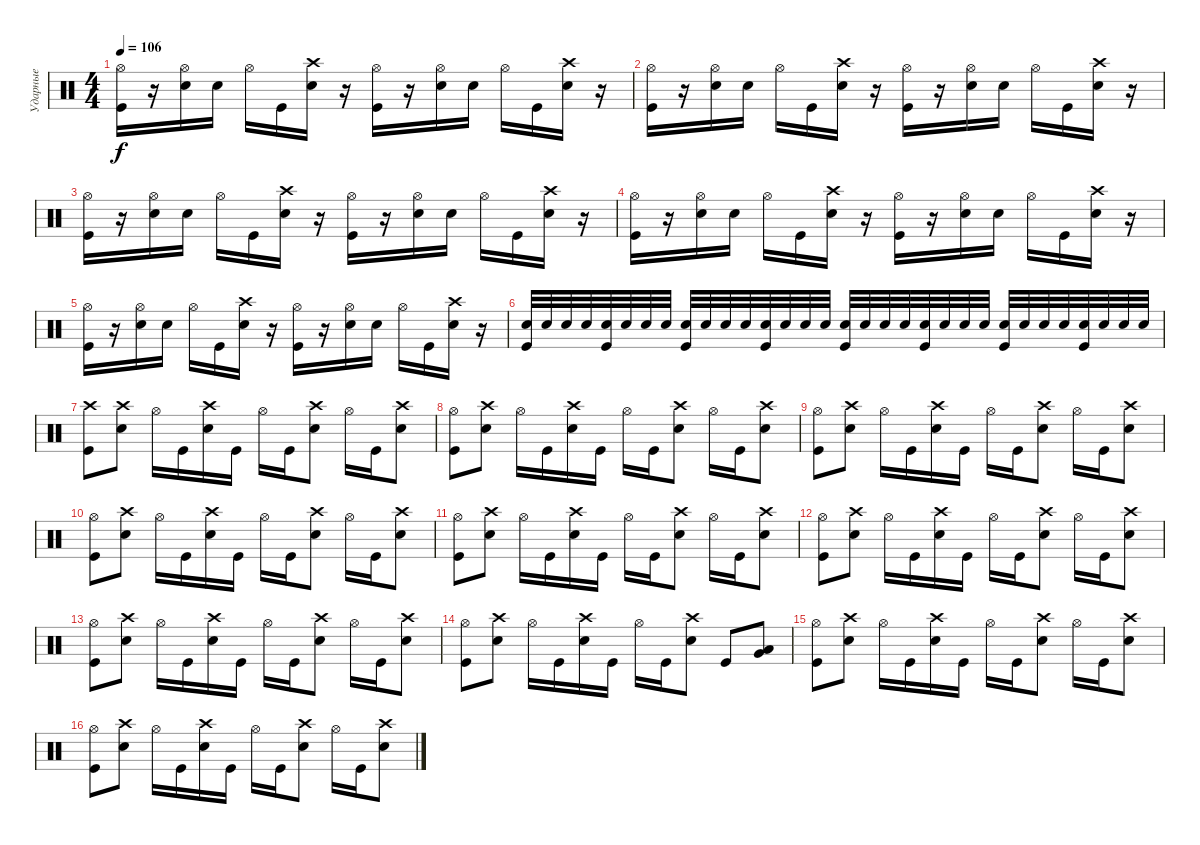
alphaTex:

\track ("Ударные" "Ударные") {instrument percussion}
\staff {score}
\articulation defaults
\ts (4 4)
\tempo 106
\clef neutral
\ks c
("Kick (hit)" "Hi-Hat (open)").16{dy f} r.16 ("Snare (hit) 2" "Hi-Hat (open)").16 "Snare (hit) 2".16 "Hi-Hat (open)".16 "Kick (hit)".16 ("Snare (hit) 2" "Crash high (hit)").16 r.16 ("Kick (hit)" "Hi-Hat (open)").16 r.16 ("Snare (hit) 2" "Hi-Hat (open)").16 "Snare (hit) 2".16 "Hi-Hat (open)".16 "Kick (hit)".16 ("Snare (hit) 2" "Crash high (hit)").16 r.16 |
("Kick (hit)" "Hi-Hat (open)").16 r.16 ("Snare (hit) 2" "Hi-Hat (open)").16 "Snare (hit) 2".16 "Hi-Hat (open)".16 "Kick (hit)".16 ("Snare (hit) 2" "Crash high (hit)").16 r.16 ("Kick (hit)" "Hi-Hat (open)").16 r.16 ("Snare (hit) 2" "Hi-Hat (open)").16 "Snare (hit) 2".16 "Hi-Hat (open)".16 "Kick (hit)".16 ("Snare (hit) 2" "Crash high (hit)").16 r.16 |
("Kick (hit)" "Hi-Hat (open)").16 r.16 ("Snare (hit) 2" "Hi-Hat (open)").16 "Snare (hit) 2".16 "Hi-Hat (open)".16 "Kick (hit)".16 ("Snare (hit) 2" "Crash high (hit)").16 r.16 ("Kick (hit)" "Hi-Hat (open)").16 r.16 ("Snare (hit) 2" "Hi-Hat (open)").16 "Snare (hit) 2".16 "Hi-Hat (open)".16 "Kick (hit)".16 ("Snare (hit) 2" "Crash high (hit)").16 r.16 |
("Kick (hit)" "Hi-Hat (open)").16 r.16 ("Snare (hit) 2" "Hi-Hat (open)").16 "Snare (hit) 2".16 "Hi-Hat (open)".16 "Kick (hit)".16 ("Snare (hit) 2" "Crash high (hit)").16 r.16 ("Kick (hit)" "Hi-Hat (open)").16 r.16 ("Snare (hit) 2" "Hi-Hat (open)").16 "Snare (hit) 2".16 "Hi-Hat (open)".16 "Kick (hit)".16 ("Snare (hit) 2" "Crash high (hit)").16 r.16 |
("Kick (hit)" "Hi-Hat (open)").16 r.16 ("Snare (hit) 2" "Hi-Hat (open)").16 "Snare (hit) 2".16 "Hi-Hat (open)".16 "Kick (hit)".16 ("Snare (hit) 2" "Crash high (hit)").16 r.16 ("Kick (hit)" "Hi-Hat (open)").16 r.16 ("Snare (hit) 2" "Hi-Hat (open)").16 "Snare (hit) 2".16 "Hi-Hat (open)".16 "Kick (hit)".16 ("Snare (hit) 2" "Crash high (hit)").16 r.16 |
("Kick (hit)" "Snare (hit) 2").32 "Snare (hit) 2".32 "Snare (hit) 2".32 "Snare (hit) 2".32 ("Kick (hit)" "Snare (hit) 2").32 "Snare (hit) 2".32 "Snare (hit) 2".32 "Snare (hit) 2".32 ("Kick (hit)" "Snare (hit) 2").32 "Snare (hit) 2".32 "Snare (hit) 2".32 "Snare (hit) 2".32 ("Kick (hit)" "Snare (hit) 2").32 "Snare (hit) 2".32 "Snare (hit) 2".32 "Snare (hit) 2".32 ("Kick (hit)" "Snare (hit) 2").32 "Snare (hit) 2".32 "Snare (hit) 2".32 "Snare (hit) 2".32 ("Kick (hit)" "Snare (hit) 2").32 "Snare (hit) 2".32 "Snare (hit) 2".32 "Snare (hit) 2".32 ("Kick (hit)" "Snare (hit) 2").32 "Snare (hit) 2".32 "Snare (hit) 2".32 "Snare (hit) 2".32 ("Kick (hit)" "Snare (hit) 2").32 "Snare (hit) 2".32 "Snare (hit) 2".32 "Snare (hit) 2".32 |
("Kick (hit)" "Crash high (hit)").8 ("Snare (hit) 2" "Crash high (hit)").8 "Hi-Hat (open)".16 "Kick (hit)".16 ("Snare (hit) 2" "Crash high (hit)").16 "Kick (hit)".16 "Hi-Hat (open)".16 "Kick (hit)".16 ("Snare (hit) 2" "Crash high (hit)").8 "Hi-Hat (open)".16 "Kick (hit)".16 ("Snare (hit) 2" "Crash high (hit)").8 |
("Kick (hit)" "Hi-Hat (open)").8 ("Snare (hit) 2" "Crash high (hit)").8 "Hi-Hat (open)".16 "Kick (hit)".16 ("Snare (hit) 2" "Crash high (hit)").16 "Kick (hit)".16 "Hi-Hat (open)".16 "Kick (hit)".16 ("Snare (hit) 2" "Crash high (hit)").8 "Hi-Hat (open)".16 "Kick (hit)".16 ("Snare (hit) 2" "Crash high (hit)").8 |
("Kick (hit)" "Hi-Hat (open)").8 ("Snare (hit) 2" "Crash high (hit)").8 "Hi-Hat (open)".16 "Kick (hit)".16 ("Snare (hit) 2" "Crash high (hit)").16 "Kick (hit)".16 "Hi-Hat (open)".16 "Kick (hit)".16 ("Snare (hit) 2" "Crash high (hit)").8 "Hi-Hat (open)".16 "Kick (hit)".16 ("Snare (hit) 2" "Crash high (hit)").8 |
("Kick (hit)" "Hi-Hat (open)").8 ("Snare (hit) 2" "Crash high (hit)").8 "Hi-Hat (open)".16 "Kick (hit)".16 ("Snare (hit) 2" "Crash high (hit)").16 "Kick (hit)".16 "Hi-Hat (open)".16 "Kick (hit)".16 ("Snare (hit) 2" "Crash high (hit)").8 "Hi-Hat (open)".16 "Kick (hit)".16 ("Snare (hit) 2" "Crash high (hit)").8 |
("Kick (hit)" "Hi-Hat (open)").8 ("Snare (hit) 2" "Crash high (hit)").8 "Hi-Hat (open)".16 "Kick (hit)".16 ("Snare (hit) 2" "Crash high (hit)").16 "Kick (hit)".16 "Hi-Hat (open)".16 "Kick (hit)".16 ("Snare (hit) 2" "Crash high (hit)").8 "Hi-Hat (open)".16 "Kick (hit)".16 ("Snare (hit) 2" "Crash high (hit)").8 |
("Kick (hit)" "Hi-Hat (open)").8 ("Snare (hit) 2" "Crash high (hit)").8 "Hi-Hat (open)".16 "Kick (hit)".16 ("Snare (hit) 2" "Crash high (hit)").16 "Kick (hit)".16 "Hi-Hat (open)".16 "Kick (hit)".16 ("Snare (hit) 2" "Crash high (hit)").8 "Hi-Hat (open)".16 "Kick (hit)".16 ("Snare (hit) 2" "Crash high (hit)").8 |
("Kick (hit)" "Hi-Hat (open)").8 ("Snare (hit) 2" "Crash high (hit)").8 "Hi-Hat (open)".16 "Kick (hit)".16 ("Snare (hit) 2" "Crash high (hit)").16 "Kick (hit)".16 "Hi-Hat (open)".16 "Kick (hit)".16 ("Snare (hit) 2" "Crash high (hit)").8 "Hi-Hat (open)".16 "Kick (hit)".16 ("Snare (hit) 2" "Crash high (hit)").8 |
("Kick (hit)" "Hi-Hat (open)").8 ("Snare (hit) 2" "Crash high (hit)").8 "Hi-Hat (open)".16 "Kick (hit)".16 ("Snare (hit) 2" "Crash high (hit)").16 "Kick (hit)".16 "Hi-Hat (open)".16 "Kick (hit)".16 ("Snare (hit) 2" "Crash high (hit)").8 "Kick (hit)".8 ("Very Low Tom (hit)" "Low Floor Tom (hit)").8 |
("Kick (hit)" "Hi-Hat (open)").8 ("Snare (hit) 2" "Crash high (hit)").8 "Hi-Hat (open)".16 "Kick (hit)".16 ("Snare (hit) 2" "Crash high (hit)").16 "Kick (hit)".16 "Hi-Hat (open)".16 "Kick (hit)".16 ("Snare (hit) 2" "Crash high (hit)").8 "Hi-Hat (open)".16 "Kick (hit)".16 ("Snare (hit) 2" "Crash high (hit)").8 |
("Kick (hit)" "Hi-Hat (open)").8 ("Snare (hit) 2" "Crash high (hit)").8 "Hi-Hat (open)".16 "Kick (hit)".16 ("Snare (hit) 2" "Crash high (hit)").16 "Kick (hit)".16 "Hi-Hat (open)".16 "Kick (hit)".16 ("Snare (hit) 2" "Crash high (hit)").8 "Hi-Hat (open)".16 "Kick (hit)".16 ("Snare (hit) 2" "Crash high (hit)").8
